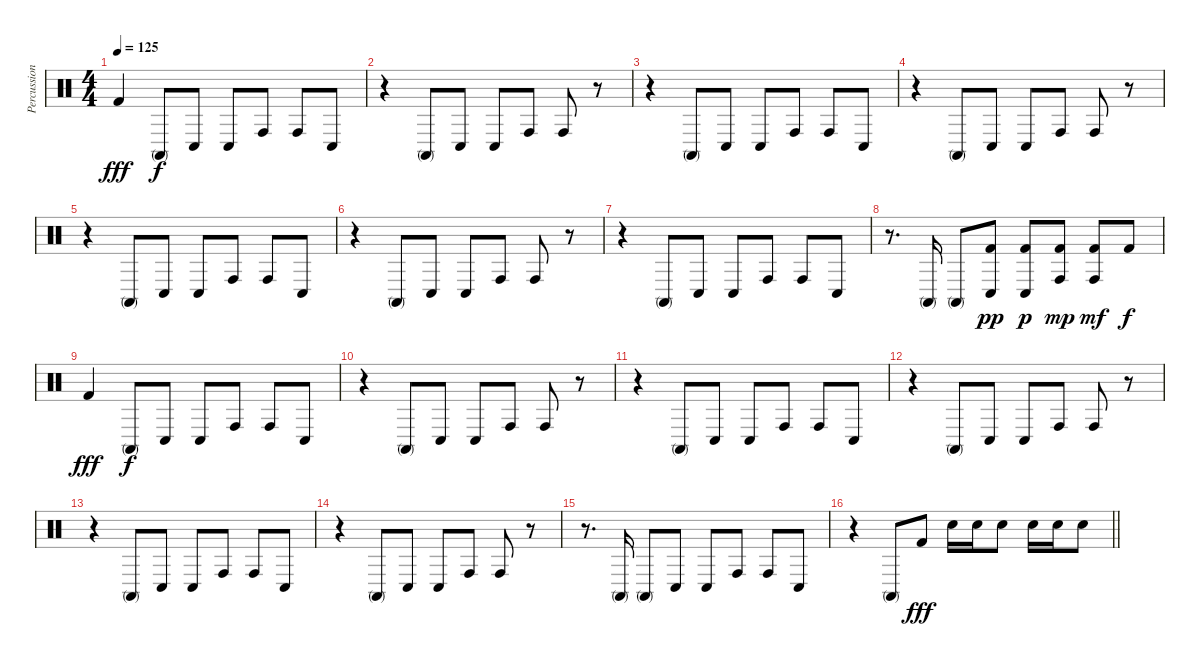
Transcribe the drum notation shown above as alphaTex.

\track ("Percussion" "Percussion") {instrument percussion}
\staff {score}
\articulation defaults
\ts (4 4)
\tempo 125
\clef neutral
\ks c "Kick (hit) 2".4{dy fff} "Conga high (mute)".8{dy f} "Conga low (hit)".8 "Conga low (hit)".8 "Conga high (hit)".8 "Conga high (hit)".8 "Conga low (hit)".8
|
r.4 "Conga high (mute)".8 "Conga low (hit)".8 "Conga low (hit)".8 "Conga high (hit)".8 "Conga high (hit)".8 r.8 |
r.4 "Conga high (mute)".8 "Conga low (hit)".8 "Conga low (hit)".8 "Conga high (hit)".8 "Conga high (hit)".8 "Conga low (hit)".8 |
r.4 "Conga high (mute)".8 "Conga low (hit)".8 "Conga low (hit)".8 "Conga high (hit)".8 "Conga high (hit)".8 r.8 |
r.4 "Conga high (mute)".8 "Conga low (hit)".8 "Conga low (hit)".8 "Conga high (hit)".8 "Conga high (hit)".8 "Conga low (hit)".8 |
r.4 "Conga high (mute)".8 "Conga low (hit)".8 "Conga low (hit)".8 "Conga high (hit)".8 "Conga high (hit)".8 r.8 |
r.4 "Conga high (mute)".8 "Conga low (hit)".8 "Conga low (hit)".8 "Conga high (hit)".8 "Conga high (hit)".8 "Conga low (hit)".8 |
r.8{d} "Conga high (mute)".16 "Conga high (mute)".8 ("Kick (hit) 2" "Conga low (hit)").8{dy pp} ("Kick (hit) 2" "Conga low (hit)").8{dy p} ("Kick (hit) 2" "Conga high (hit)").8{dy mp} ("Kick (hit) 2" "Conga high (hit)").8{dy mf} "Kick (hit) 2".8{dy f} |
"Kick (hit) 2".4{dy fff} "Conga high (mute)".8{dy f} "Conga low (hit)".8 "Conga low (hit)".8 "Conga high (hit)".8 "Conga high (hit)".8 "Conga low (hit)".8 |
r.4 "Conga high (mute)".8 "Conga low (hit)".8 "Conga low (hit)".8 "Conga high (hit)".8 "Conga high (hit)".8 r.8 |
r.4 "Conga high (mute)".8 "Conga low (hit)".8 "Conga low (hit)".8 "Conga high (hit)".8 "Conga high (hit)".8 "Conga low (hit)".8 |
r.4 "Conga high (mute)".8 "Conga low (hit)".8 "Conga low (hit)".8 "Conga high (hit)".8 "Conga high (hit)".8 r.8 |
r.4 "Conga high (mute)".8 "Conga low (hit)".8 "Conga low (hit)".8 "Conga high (hit)".8 "Conga high (hit)".8 "Conga low (hit)".8 |
r.4 "Conga high (mute)".8 "Conga low (hit)".8 "Conga low (hit)".8 "Conga high (hit)".8 "Conga high (hit)".8 r.8 |
r.8{d} "Conga high (mute)".16 "Conga high (mute)".8 "Conga low (hit)".8 "Conga low (hit)".8 "Conga high (hit)".8 "Conga high (hit)".8 "Conga low (hit)".8 |
\barLineRight lightlight
r.4 "Conga high (mute)".8 "Kick (hit) 2".8{dy fff} "Electric Snare (hit)".16 "Electric Snare (hit)".16 "Electric Snare (hit)".8 "Electric Snare (hit)".16 "Electric Snare (hit)".16 "Electric Snare (hit)".8
